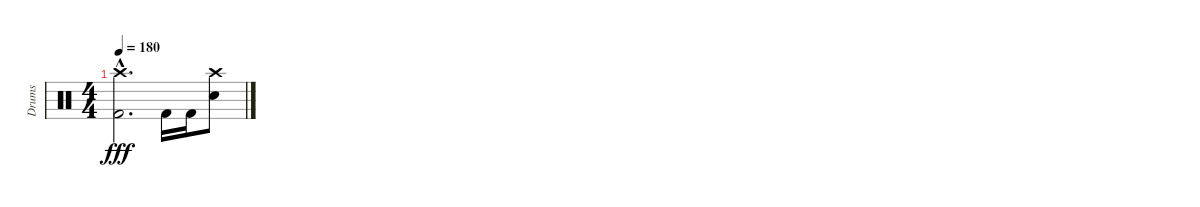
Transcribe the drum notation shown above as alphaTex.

\track ("Drums" "Drums") {instrument percussion}
\staff {score}
\articulation defaults
\ts (4 4)
\tempo 180
\clef neutral
\ks c
("Crash high (hit)"{hac} "Kick (hit) 2"{hac}).2{d dy fff} "Kick (hit) 2".16 "Kick (hit) 2".16 ("Crash high (hit)" "Snare (hit) 2").8
